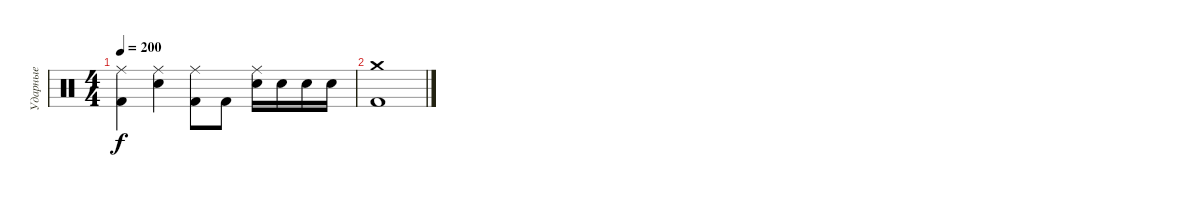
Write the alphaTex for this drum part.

\track ("Ударные" "Ударные") {instrument percussion}
\staff {score}
\articulation defaults
\ts (4 4)
\tempo 200
\clef neutral
\ks c
("Ride (middle)" "Kick (hit) 2").4{dy f} ("Ride (middle)" "Snare (hit) 2").4 ("Ride (middle)" "Kick (hit) 2").8 "Kick (hit) 2".8 ("Ride (middle)" "Snare (hit) 2").16 "Snare (hit) 2".16 "Snare (hit) 2".16 "Snare (hit) 2".16 |
("Crash medium (hit)" "Kick (hit) 2").1
